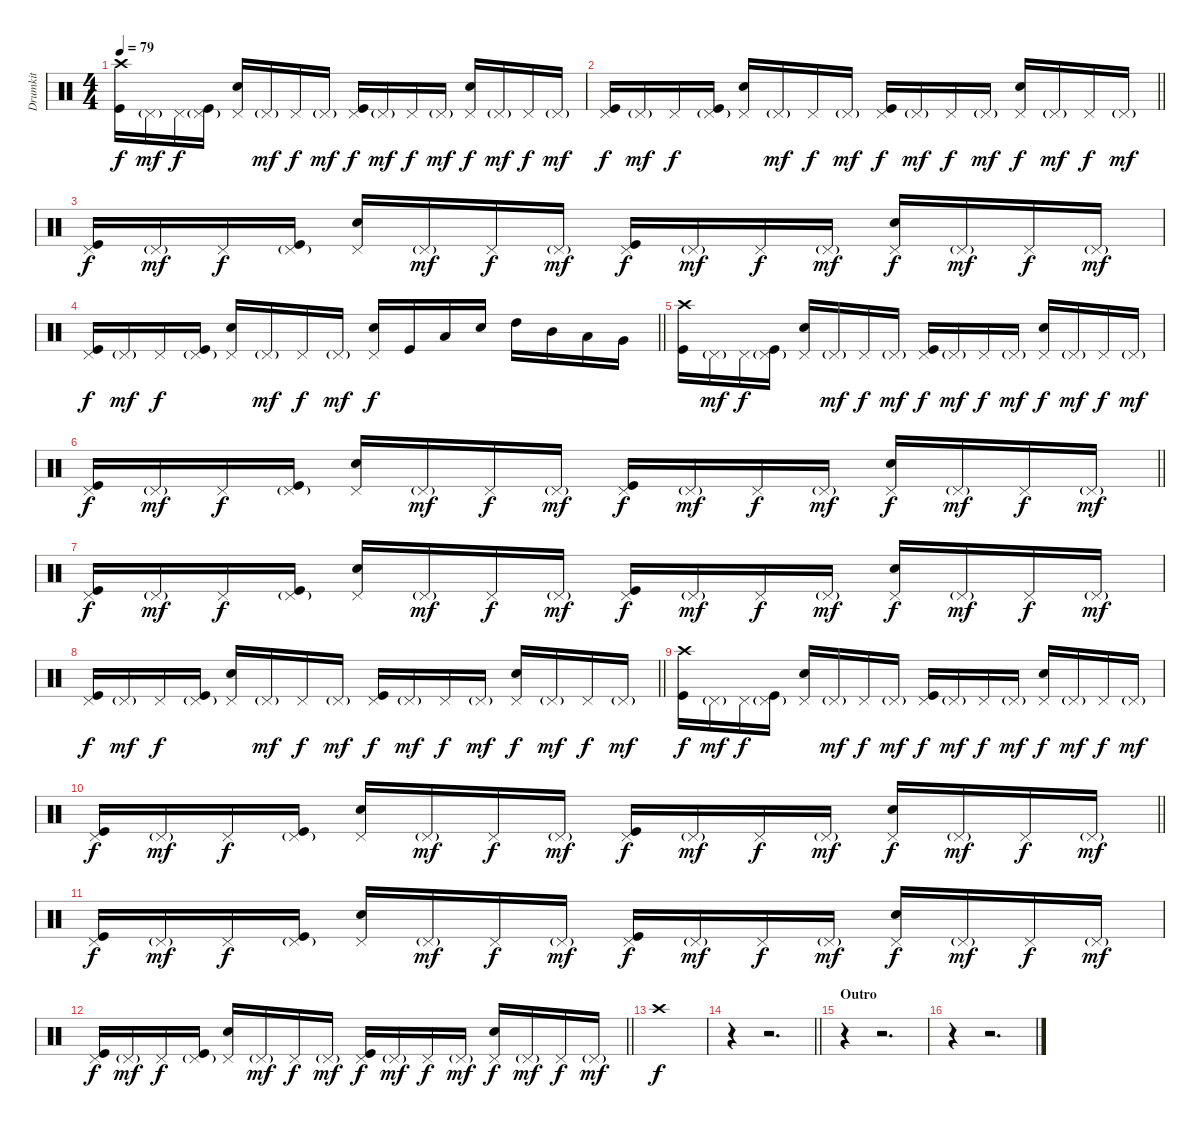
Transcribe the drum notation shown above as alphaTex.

\track ("Drumkit" "Drumkit") {instrument percussion}
\staff {score}
\articulation defaults
\ts (4 4)
\tempo 79
\clef neutral
\ks c
("Crash high (hit)" "Kick (hit)").16{dy f} "Pedal Hi-Hat (hit)"{g}.16{dy mf} "Pedal Hi-Hat (hit)".16{dy f} ("Pedal Hi-Hat (hit)"{g} "Kick (hit)").16 ("Pedal Hi-Hat (hit)" "Snare (hit) 2").16 "Pedal Hi-Hat (hit)"{g}.16{dy mf} "Pedal Hi-Hat (hit)".16{dy f} "Pedal Hi-Hat (hit)"{g}.16{dy mf} ("Pedal Hi-Hat (hit)" "Kick (hit)").16{dy f} "Pedal Hi-Hat (hit)"{g}.16{dy mf} "Pedal Hi-Hat (hit)".16{dy f} "Pedal Hi-Hat (hit)"{g}.16{dy mf} ("Pedal Hi-Hat (hit)" "Snare (hit) 2").16{dy f} "Pedal Hi-Hat (hit)"{g}.16{dy mf} "Pedal Hi-Hat (hit)".16{dy f} "Pedal Hi-Hat (hit)"{g}.16{dy mf} |
\barLineRight lightlight
("Pedal Hi-Hat (hit)" "Kick (hit)").16{dy f} "Pedal Hi-Hat (hit)"{g}.16{dy mf} "Pedal Hi-Hat (hit)".16{dy f} ("Pedal Hi-Hat (hit)"{g} "Kick (hit)").16 ("Pedal Hi-Hat (hit)" "Snare (hit) 2").16 "Pedal Hi-Hat (hit)"{g}.16{dy mf} "Pedal Hi-Hat (hit)".16{dy f} "Pedal Hi-Hat (hit)"{g}.16{dy mf} ("Pedal Hi-Hat (hit)" "Kick (hit)").16{dy f} "Pedal Hi-Hat (hit)"{g}.16{dy mf} "Pedal Hi-Hat (hit)".16{dy f} "Pedal Hi-Hat (hit)"{g}.16{dy mf} ("Pedal Hi-Hat (hit)" "Snare (hit) 2").16{dy f} "Pedal Hi-Hat (hit)"{g}.16{dy mf} "Pedal Hi-Hat (hit)".16{dy f} "Pedal Hi-Hat (hit)"{g}.16{dy mf} |
("Pedal Hi-Hat (hit)" "Kick (hit)").16{dy f} "Pedal Hi-Hat (hit)"{g}.16{dy mf} "Pedal Hi-Hat (hit)".16{dy f} ("Pedal Hi-Hat (hit)"{g} "Kick (hit)").16 ("Pedal Hi-Hat (hit)" "Snare (hit) 2").16 "Pedal Hi-Hat (hit)"{g}.16{dy mf} "Pedal Hi-Hat (hit)".16{dy f} "Pedal Hi-Hat (hit)"{g}.16{dy mf} ("Pedal Hi-Hat (hit)" "Kick (hit)").16{dy f} "Pedal Hi-Hat (hit)"{g}.16{dy mf} "Pedal Hi-Hat (hit)".16{dy f} "Pedal Hi-Hat (hit)"{g}.16{dy mf} ("Pedal Hi-Hat (hit)" "Snare (hit) 2").16{dy f} "Pedal Hi-Hat (hit)"{g}.16{dy mf} "Pedal Hi-Hat (hit)".16{dy f} "Pedal Hi-Hat (hit)"{g}.16{dy mf} |
\barLineRight lightlight
("Pedal Hi-Hat (hit)" "Kick (hit)").16{dy f} "Pedal Hi-Hat (hit)"{g}.16{dy mf} "Pedal Hi-Hat (hit)".16{dy f} ("Pedal Hi-Hat (hit)"{g} "Kick (hit)").16 ("Pedal Hi-Hat (hit)" "Snare (hit) 2").16 "Pedal Hi-Hat (hit)"{g}.16{dy mf} "Pedal Hi-Hat (hit)".16{dy f} "Pedal Hi-Hat (hit)"{g}.16{dy mf} ("Pedal Hi-Hat (hit)" "Snare (hit) 2").16{dy f} "Kick (hit)".16 "Low Tom (hit)".16 "Snare (hit) 2".16 "High Tom (hit)".16 "Mid Tom (hit)".16 "Low Tom (hit)".16 "Very Low Tom (hit)".16 |
("Crash high (hit)" "Kick (hit)").16 "Pedal Hi-Hat (hit)"{g}.16{dy mf} "Pedal Hi-Hat (hit)".16{dy f} ("Pedal Hi-Hat (hit)"{g} "Kick (hit)").16 ("Pedal Hi-Hat (hit)" "Snare (hit) 2").16 "Pedal Hi-Hat (hit)"{g}.16{dy mf} "Pedal Hi-Hat (hit)".16{dy f} "Pedal Hi-Hat (hit)"{g}.16{dy mf} ("Pedal Hi-Hat (hit)" "Kick (hit)").16{dy f} "Pedal Hi-Hat (hit)"{g}.16{dy mf} "Pedal Hi-Hat (hit)".16{dy f} "Pedal Hi-Hat (hit)"{g}.16{dy mf} ("Pedal Hi-Hat (hit)" "Snare (hit) 2").16{dy f} "Pedal Hi-Hat (hit)"{g}.16{dy mf} "Pedal Hi-Hat (hit)".16{dy f} "Pedal Hi-Hat (hit)"{g}.16{dy mf} |
\barLineRight lightlight
("Pedal Hi-Hat (hit)" "Kick (hit)").16{dy f} "Pedal Hi-Hat (hit)"{g}.16{dy mf} "Pedal Hi-Hat (hit)".16{dy f} ("Pedal Hi-Hat (hit)"{g} "Kick (hit)").16 ("Pedal Hi-Hat (hit)" "Snare (hit) 2").16 "Pedal Hi-Hat (hit)"{g}.16{dy mf} "Pedal Hi-Hat (hit)".16{dy f} "Pedal Hi-Hat (hit)"{g}.16{dy mf} ("Pedal Hi-Hat (hit)" "Kick (hit)").16{dy f} "Pedal Hi-Hat (hit)"{g}.16{dy mf} "Pedal Hi-Hat (hit)".16{dy f} "Pedal Hi-Hat (hit)"{g}.16{dy mf} ("Pedal Hi-Hat (hit)" "Snare (hit) 2").16{dy f} "Pedal Hi-Hat (hit)"{g}.16{dy mf} "Pedal Hi-Hat (hit)".16{dy f} "Pedal Hi-Hat (hit)"{g}.16{dy mf} |
("Pedal Hi-Hat (hit)" "Kick (hit)").16{dy f} "Pedal Hi-Hat (hit)"{g}.16{dy mf} "Pedal Hi-Hat (hit)".16{dy f} ("Pedal Hi-Hat (hit)"{g} "Kick (hit)").16 ("Pedal Hi-Hat (hit)" "Snare (hit) 2").16 "Pedal Hi-Hat (hit)"{g}.16{dy mf} "Pedal Hi-Hat (hit)".16{dy f} "Pedal Hi-Hat (hit)"{g}.16{dy mf} ("Pedal Hi-Hat (hit)" "Kick (hit)").16{dy f} "Pedal Hi-Hat (hit)"{g}.16{dy mf} "Pedal Hi-Hat (hit)".16{dy f} "Pedal Hi-Hat (hit)"{g}.16{dy mf} ("Pedal Hi-Hat (hit)" "Snare (hit) 2").16{dy f} "Pedal Hi-Hat (hit)"{g}.16{dy mf} "Pedal Hi-Hat (hit)".16{dy f} "Pedal Hi-Hat (hit)"{g}.16{dy mf} |
\barLineRight lightlight
("Pedal Hi-Hat (hit)" "Kick (hit)").16{dy f} "Pedal Hi-Hat (hit)"{g}.16{dy mf} "Pedal Hi-Hat (hit)".16{dy f} ("Pedal Hi-Hat (hit)"{g} "Kick (hit)").16 ("Pedal Hi-Hat (hit)" "Snare (hit) 2").16 "Pedal Hi-Hat (hit)"{g}.16{dy mf} "Pedal Hi-Hat (hit)".16{dy f} "Pedal Hi-Hat (hit)"{g}.16{dy mf} ("Pedal Hi-Hat (hit)" "Kick (hit)").16{dy f} "Pedal Hi-Hat (hit)"{g}.16{dy mf} "Pedal Hi-Hat (hit)".16{dy f} "Pedal Hi-Hat (hit)"{g}.16{dy mf} ("Pedal Hi-Hat (hit)" "Snare (hit) 2").16{dy f} "Pedal Hi-Hat (hit)"{g}.16{dy mf} "Pedal Hi-Hat (hit)".16{dy f} "Pedal Hi-Hat (hit)"{g}.16{dy mf} |
("Crash high (hit)" "Kick (hit)").16{dy f} "Pedal Hi-Hat (hit)"{g}.16{dy mf} "Pedal Hi-Hat (hit)".16{dy f} ("Pedal Hi-Hat (hit)"{g} "Kick (hit)").16 ("Pedal Hi-Hat (hit)" "Snare (hit) 2").16 "Pedal Hi-Hat (hit)"{g}.16{dy mf} "Pedal Hi-Hat (hit)".16{dy f} "Pedal Hi-Hat (hit)"{g}.16{dy mf} ("Pedal Hi-Hat (hit)" "Kick (hit)").16{dy f} "Pedal Hi-Hat (hit)"{g}.16{dy mf} "Pedal Hi-Hat (hit)".16{dy f} "Pedal Hi-Hat (hit)"{g}.16{dy mf} ("Pedal Hi-Hat (hit)" "Snare (hit) 2").16{dy f} "Pedal Hi-Hat (hit)"{g}.16{dy mf} "Pedal Hi-Hat (hit)".16{dy f} "Pedal Hi-Hat (hit)"{g}.16{dy mf} |
\barLineRight lightlight
("Pedal Hi-Hat (hit)" "Kick (hit)").16{dy f} "Pedal Hi-Hat (hit)"{g}.16{dy mf} "Pedal Hi-Hat (hit)".16{dy f} ("Pedal Hi-Hat (hit)"{g} "Kick (hit)").16 ("Pedal Hi-Hat (hit)" "Snare (hit) 2").16 "Pedal Hi-Hat (hit)"{g}.16{dy mf} "Pedal Hi-Hat (hit)".16{dy f} "Pedal Hi-Hat (hit)"{g}.16{dy mf} ("Pedal Hi-Hat (hit)" "Kick (hit)").16{dy f} "Pedal Hi-Hat (hit)"{g}.16{dy mf} "Pedal Hi-Hat (hit)".16{dy f} "Pedal Hi-Hat (hit)"{g}.16{dy mf} ("Pedal Hi-Hat (hit)" "Snare (hit) 2").16{dy f} "Pedal Hi-Hat (hit)"{g}.16{dy mf} "Pedal Hi-Hat (hit)".16{dy f} "Pedal Hi-Hat (hit)"{g}.16{dy mf} |
("Pedal Hi-Hat (hit)" "Kick (hit)").16{dy f} "Pedal Hi-Hat (hit)"{g}.16{dy mf} "Pedal Hi-Hat (hit)".16{dy f} ("Pedal Hi-Hat (hit)"{g} "Kick (hit)").16 ("Pedal Hi-Hat (hit)" "Snare (hit) 2").16 "Pedal Hi-Hat (hit)"{g}.16{dy mf} "Pedal Hi-Hat (hit)".16{dy f} "Pedal Hi-Hat (hit)"{g}.16{dy mf} ("Pedal Hi-Hat (hit)" "Kick (hit)").16{dy f} "Pedal Hi-Hat (hit)"{g}.16{dy mf} "Pedal Hi-Hat (hit)".16{dy f} "Pedal Hi-Hat (hit)"{g}.16{dy mf} ("Pedal Hi-Hat (hit)" "Snare (hit) 2").16{dy f} "Pedal Hi-Hat (hit)"{g}.16{dy mf} "Pedal Hi-Hat (hit)".16{dy f} "Pedal Hi-Hat (hit)"{g}.16{dy mf} |
\barLineRight lightlight
("Pedal Hi-Hat (hit)" "Kick (hit)").16{dy f} "Pedal Hi-Hat (hit)"{g}.16{dy mf} "Pedal Hi-Hat (hit)".16{dy f} ("Pedal Hi-Hat (hit)"{g} "Kick (hit)").16 ("Pedal Hi-Hat (hit)" "Snare (hit) 2").16 "Pedal Hi-Hat (hit)"{g}.16{dy mf} "Pedal Hi-Hat (hit)".16{dy f} "Pedal Hi-Hat (hit)"{g}.16{dy mf} ("Pedal Hi-Hat (hit)" "Kick (hit)").16{dy f} "Pedal Hi-Hat (hit)"{g}.16{dy mf} "Pedal Hi-Hat (hit)".16{dy f} "Pedal Hi-Hat (hit)"{g}.16{dy mf} ("Pedal Hi-Hat (hit)" "Snare (hit) 2").16{dy f} "Pedal Hi-Hat (hit)"{g}.16{dy mf} "Pedal Hi-Hat (hit)".16{dy f} "Pedal Hi-Hat (hit)"{g}.16{dy mf} |
\section ("" "")
"Crash high (hit)".1{dy f} |
\barLineRight lightlight
r.4 r.2{d} |
\section ("" "Outro")
r.4 r.2{d} |
r.4 r.2{d}
